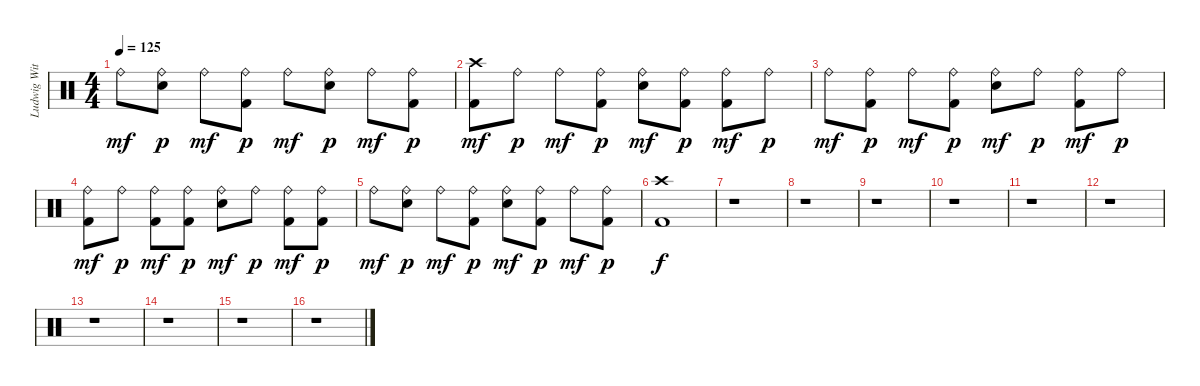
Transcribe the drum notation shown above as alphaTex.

\track ("Ludwig Witt" "Ludwig Wit") {instrument percussion}
\staff {score}
\articulation defaults
\ts (4 4)
\tempo 125
\clef neutral
\ks c "Ride (bell)".8{dy mf}
("Ride (bell)" "Electric Snare (hit)").8{dy p} "Ride (bell)".8{dy mf} ("Ride (bell)" "Kick (hit) 2").8{dy p} "Ride (bell)".8{dy mf} ("Ride (bell)" "Electric Snare (hit)").8{dy p} "Ride (bell)".8{dy mf} ("Ride (bell)" "Kick (hit) 2").8{dy p} |
("Crash high (hit)" "Kick (hit) 2").8{dy mf} "Ride (bell)".8{dy p} "Ride (bell)".8{dy mf} ("Ride (bell)" "Kick (hit) 2").8{dy p} ("Ride (bell)" "Electric Snare (hit)").8{dy mf} ("Ride (bell)" "Kick (hit) 2").8{dy p} ("Ride (bell)" "Kick (hit) 2").8{dy mf} "Ride (bell)".8{dy p} |
"Ride (bell)".8{dy mf} ("Ride (bell)" "Kick (hit) 2").8{dy p} "Ride (bell)".8{dy mf} ("Ride (bell)" "Kick (hit) 2").8{dy p} ("Ride (bell)" "Electric Snare (hit)").8{dy mf} "Ride (bell)".8{dy p} ("Ride (bell)" "Kick (hit) 2").8{dy mf} "Ride (bell)".8{dy p} |
("Ride (bell)" "Kick (hit) 2").8{dy mf} "Ride (bell)".8{dy p} ("Ride (bell)" "Kick (hit) 2").8{dy mf} ("Ride (bell)" "Kick (hit) 2").8{dy p} ("Ride (bell)" "Electric Snare (hit)").8{dy mf} "Ride (bell)".8{dy p} ("Ride (bell)" "Kick (hit) 2").8{dy mf} ("Ride (bell)" "Kick (hit) 2").8{dy p} |
"Ride (bell)".8{dy mf} ("Ride (bell)" "Electric Snare (hit)").8{dy p} "Ride (bell)".8{dy mf} ("Ride (bell)" "Kick (hit) 2").8{dy p} ("Ride (bell)" "Electric Snare (hit)").8{dy mf} ("Ride (bell)" "Kick (hit) 2").8{dy p} "Ride (bell)".8{dy mf} ("Ride (bell)" "Kick (hit) 2").8{dy p} |
("Crash high (hit)" "Kick (hit) 2").1{dy f} |
r.1 |
r.1 |
r.1 |
r.1 |
r.1 |
r.1 |
r.1 |
r.1 |
r.1 |
r.1
